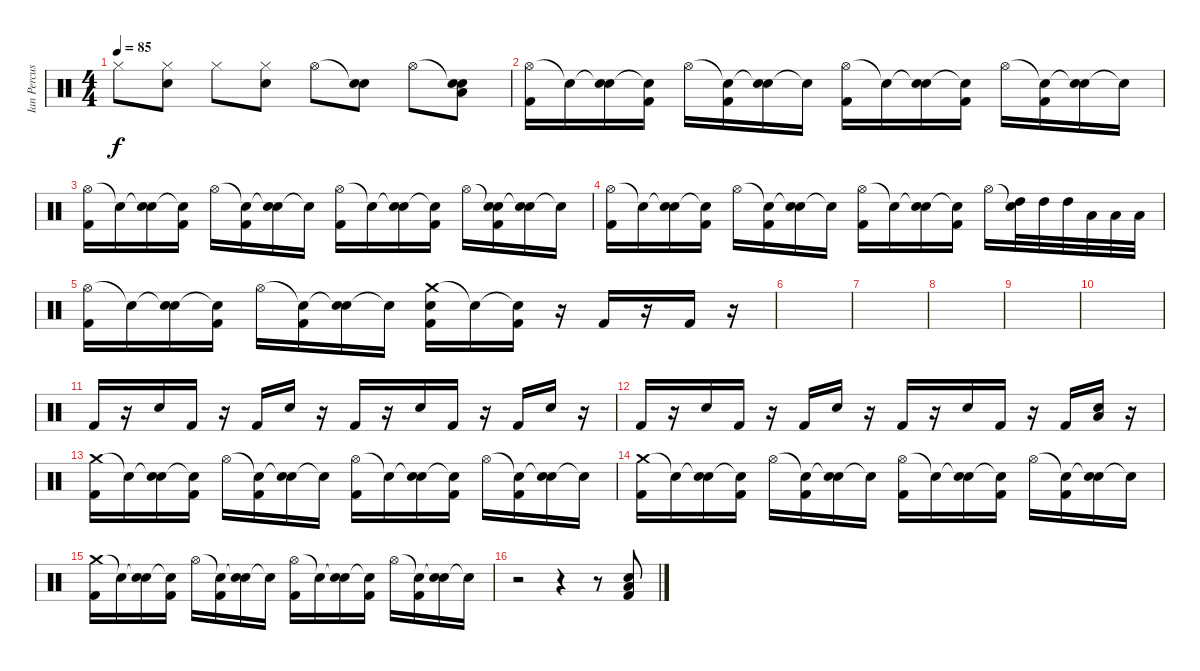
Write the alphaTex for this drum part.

\track ("Ian Percussion" "Ian Percus") {instrument percussion}
\staff {score}
\articulation defaults
\ts (4 4)
\tempo 85
\clef neutral
\ks c "Hi-Hat (closed)".8{dy f}
("Hand Clap (hit)" "Hi-Hat (closed)").8 "Hi-Hat (closed)".8 ("Hand Clap (hit)" "Hi-Hat (closed)").8 "Hi-Hat (open)".8 ("Snare (hit)"{t} "Hand Clap (hit)").8 "Hi-Hat (open)".8 ("Snare (hit)"{t} "Electric Snare (hit)" "Low Floor Tom (hit)").8 |
("Hi-Hat (open)" "Kick (hit) 2").16 "Snare (hit)"{t}.16 ("Snare (hit)"{t} "Electric Snare (hit)").16 ("Snare (hit)"{t} "Kick (hit) 2").16 "Hi-Hat (open)".16 ("Snare (hit)"{t} "Kick (hit) 2").16 ("Snare (hit)"{t} "Electric Snare (hit)").16 "Snare (hit)"{t}.16 ("Hi-Hat (open)" "Kick (hit) 2").16 "Snare (hit)"{t}.16 ("Snare (hit)"{t} "Electric Snare (hit)").16 ("Snare (hit)"{t} "Kick (hit) 2").16 "Hi-Hat (open)".16 ("Snare (hit)"{t} "Kick (hit) 2").16 ("Snare (hit)"{t} "Electric Snare (hit)").16 "Snare (hit)"{t}.16 |
("Hi-Hat (open)" "Kick (hit) 2").16 "Snare (hit)"{t}.16 ("Snare (hit)"{t} "Electric Snare (hit)").16 ("Snare (hit)"{t} "Kick (hit) 2").16 "Hi-Hat (open)".16 ("Snare (hit)"{t} "Kick (hit) 2").16 ("Snare (hit)"{t} "Electric Snare (hit)").16 "Snare (hit)"{t}.16 ("Hi-Hat (open)" "Kick (hit) 2").16 "Snare (hit)"{t}.16 ("Snare (hit)"{t} "Electric Snare (hit)").16 ("Snare (hit)"{t} "Kick (hit) 2").16 "Hi-Hat (open)".16 ("Snare (hit)"{t} "Hand Clap (hit)" "Kick (hit) 2").16 ("Snare (hit)"{t} "Hand Clap (hit)").16 "Snare (hit)"{t}.16 |
("Hi-Hat (open)" "Kick (hit) 2").16 "Snare (hit)"{t}.16 ("Snare (hit)"{t} "Electric Snare (hit)").16 ("Snare (hit)"{t} "Kick (hit) 2").16 "Hi-Hat (open)".16 ("Snare (hit)"{t} "Kick (hit) 2").16 ("Snare (hit)"{t} "Electric Snare (hit)").16 "Snare (hit)"{t}.16 ("Hi-Hat (open)" "Kick (hit) 2").16 "Snare (hit)"{t}.16 ("Snare (hit)"{t} "Electric Snare (hit)").16 ("Snare (hit)"{t} "Kick (hit) 2").16 "Hi-Hat (open)".16 ("Snare (hit)"{t} "High Tom (hit)").32 "High Tom (hit)".32 "High Tom (hit)".32 "Low Tom (hit)".32 "Low Tom (hit)".32 "Low Tom (hit)".32 |
("Hi-Hat (open)" "Kick (hit) 2").16 "Snare (hit)"{t}.16 ("Snare (hit)"{t} "Electric Snare (hit)").16 ("Snare (hit)"{t} "Kick (hit) 2").16 "Hi-Hat (open)".16 ("Snare (hit)"{t} "Kick (hit) 2").16 ("Snare (hit)"{t} "Electric Snare (hit)").16 "Snare (hit)"{t}.16 ("Crash medium (hit)" "Electric Snare (hit)" "Kick (hit) 2").16 "Snare (hit)"{t}.16 ("Snare (hit)"{t} "Kick (hit) 2").16 r.16 "Kick (hit) 2".16 r.16 "Kick (hit) 2".16 r.16 |
|
|
|
|
|
"Kick (hit) 2".16 r.16 "Hand Clap (hit)".16 "Kick (hit) 2".16 r.16 "Kick (hit) 2".16 "Hand Clap (hit)".16 r.16 "Kick (hit) 2".16 r.16 "Hand Clap (hit)".16 "Kick (hit) 2".16 r.16 "Kick (hit) 2".16 "Hand Clap (hit)".16 r.16 |
"Kick (hit) 2".16 r.16 "Hand Clap (hit)".16 "Kick (hit) 2".16 r.16 "Kick (hit) 2".16 "Hand Clap (hit)".16 r.16 "Kick (hit) 2".16 r.16 "Hand Clap (hit)".16 "Kick (hit) 2".16 r.16 "Kick (hit) 2".16 ("Electric Snare (hit)" "Low Floor Tom (hit)").16 r.16 |
("Crash medium (hit)" "Kick (hit) 2").16 "Snare (hit)"{t}.16 ("Snare (hit)"{t} "Snare (hit) 2").16 ("Snare (hit)"{t} "Kick (hit) 2").16 "Hi-Hat (open)".16 ("Snare (hit)"{t} "Kick (hit) 2").16 ("Snare (hit)"{t} "Snare (hit) 2").16 "Snare (hit)"{t}.16 ("Hi-Hat (open)" "Kick (hit) 2").16 "Snare (hit)"{t}.16 ("Snare (hit)"{t} "Snare (hit) 2").16 ("Snare (hit)"{t} "Kick (hit) 2").16 "Hi-Hat (open)".16 ("Snare (hit)"{t} "Kick (hit) 2").16 ("Snare (hit)"{t} "Snare (hit) 2").16 "Snare (hit)"{t}.16 |
("Crash medium (hit)" "Kick (hit) 2").16 "Snare (hit)"{t}.16 ("Snare (hit)"{t} "Snare (hit) 2").16 ("Snare (hit)"{t} "Kick (hit) 2").16 "Hi-Hat (open)".16 ("Snare (hit)"{t} "Kick (hit) 2").16 ("Snare (hit)"{t} "Snare (hit) 2").16 "Snare (hit)"{t}.16 ("Hi-Hat (open)" "Kick (hit) 2").16 "Snare (hit)"{t}.16 ("Snare (hit)"{t} "Snare (hit) 2").16 ("Snare (hit)"{t} "Kick (hit) 2").16 "Hi-Hat (open)".16 ("Snare (hit)"{t} "Kick (hit) 2").16 ("Snare (hit)"{t} "Snare (hit) 2").16 "Snare (hit)"{t}.16 |
("Crash medium (hit)" "Kick (hit) 2").16 "Snare (hit)"{t}.16 ("Snare (hit)"{t} "Snare (hit) 2").16 ("Snare (hit)"{t} "Kick (hit) 2").16 "Hi-Hat (open)".16 ("Snare (hit)"{t} "Kick (hit) 2").16 ("Snare (hit)"{t} "Snare (hit) 2").16 "Snare (hit)"{t}.16 ("Hi-Hat (open)" "Kick (hit) 2").16 "Snare (hit)"{t}.16 ("Snare (hit)"{t} "Snare (hit) 2").16 ("Snare (hit)"{t} "Kick (hit) 2").16 "Hi-Hat (open)".16 ("Snare (hit)"{t} "Kick (hit) 2").16 ("Snare (hit)"{t} "Snare (hit) 2").16 "Snare (hit)"{t}.16 |
r.2 r.4 r.8 ("Low Floor Tom (hit)" "Electric Snare (hit)" "Kick (hit) 2").8
